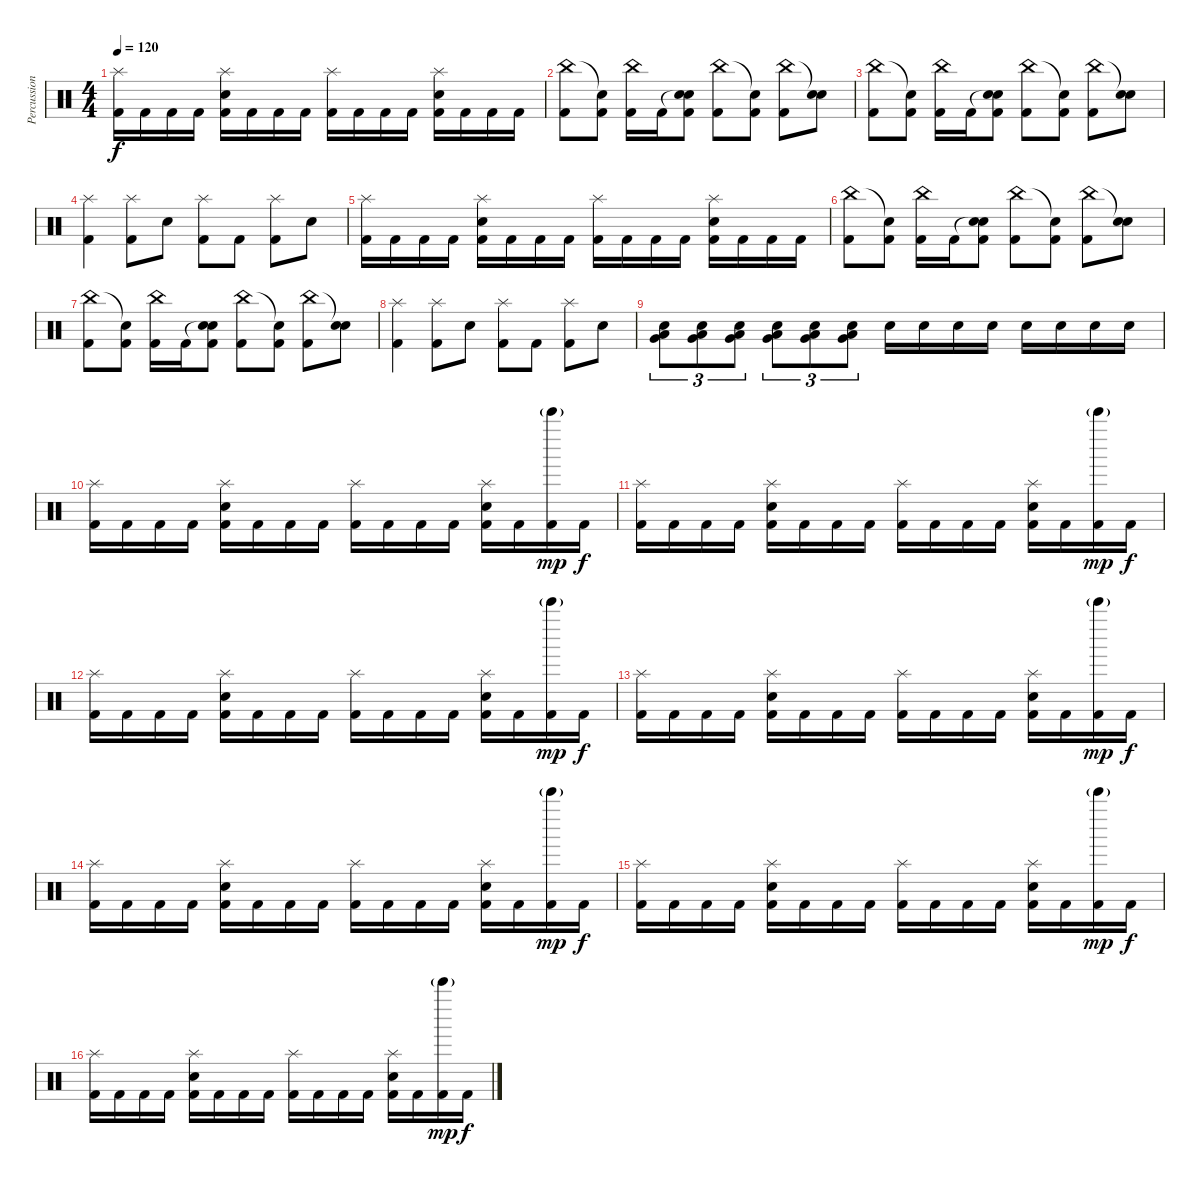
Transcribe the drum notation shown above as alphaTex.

\track ("Percussion" "Percussion") {instrument percussion}
\staff {score}
\articulation defaults
\ts (4 4)
\tempo 120
\clef neutral
\ks c
("Splash (hit)" "Kick (hit) 2").16{dy f} "Kick (hit) 2".16 "Kick (hit) 2".16 "Kick (hit) 2".16 ("Splash (hit)" "Electric Snare (hit)" "Kick (hit) 2").16 "Kick (hit) 2".16 "Kick (hit) 2".16 "Kick (hit) 2".16 ("Splash (hit)" "Kick (hit) 2").16 "Kick (hit) 2".16 "Kick (hit) 2".16 "Kick (hit) 2".16 ("Splash (hit)" "Snare (hit) 2" "Kick (hit) 2").16 "Kick (hit) 2".16 "Kick (hit) 2".16 "Kick (hit) 2".16 |
("China (hit)" "Kick (hit) 2").8 ("Snare (hit)"{t} "Kick (hit) 2").8 ("China (hit)" "Kick (hit) 2").16 "Kick (hit) 2".16 ("Snare (hit)"{t} "Electric Snare (hit)" "Kick (hit) 2").8 ("China (hit)" "Kick (hit) 2").8 ("Snare (hit)"{t} "Kick (hit) 2").8 ("China (hit)" "Kick (hit) 2").8 ("Snare (hit)"{t} "Electric Snare (hit)").8 |
("China (hit)" "Kick (hit) 2").8 ("Snare (hit)"{t} "Kick (hit) 2").8 ("China (hit)" "Kick (hit) 2").16 "Kick (hit) 2".16 ("Snare (hit)"{t} "Electric Snare (hit)" "Kick (hit) 2").8 ("China (hit)" "Kick (hit) 2").8 ("Snare (hit)"{t} "Kick (hit) 2").8 ("China (hit)" "Kick (hit) 2").8 ("Snare (hit)"{t} "Electric Snare (hit)").8 |
("Splash (hit)" "Kick (hit) 2").4 ("Splash (hit)" "Kick (hit) 2").8 "Electric Snare (hit)".8 ("Splash (hit)" "Kick (hit) 2").8 "Kick (hit) 2".8 ("Splash (hit)" "Kick (hit) 2").8 "Electric Snare (hit)".8 |
("Splash (hit)" "Kick (hit) 2").16 "Kick (hit) 2".16 "Kick (hit) 2".16 "Kick (hit) 2".16 ("Splash (hit)" "Electric Snare (hit)" "Kick (hit) 2").16 "Kick (hit) 2".16 "Kick (hit) 2".16 "Kick (hit) 2".16 ("Splash (hit)" "Kick (hit) 2").16 "Kick (hit) 2".16 "Kick (hit) 2".16 "Kick (hit) 2".16 ("Splash (hit)" "Snare (hit) 2" "Kick (hit) 2").16 "Kick (hit) 2".16 "Kick (hit) 2".16 "Kick (hit) 2".16 |
("China (hit)" "Kick (hit) 2").8 ("Snare (hit)"{t} "Kick (hit) 2").8 ("China (hit)" "Kick (hit) 2").16 "Kick (hit) 2".16 ("Snare (hit)"{t} "Electric Snare (hit)" "Kick (hit) 2").8 ("China (hit)" "Kick (hit) 2").8 ("Snare (hit)"{t} "Kick (hit) 2").8 ("China (hit)" "Kick (hit) 2").8 ("Snare (hit)"{t} "Electric Snare (hit)").8 |
("China (hit)" "Kick (hit) 2").8 ("Snare (hit)"{t} "Kick (hit) 2").8 ("China (hit)" "Kick (hit) 2").16 "Kick (hit) 2".16 ("Snare (hit)"{t} "Electric Snare (hit)" "Kick (hit) 2").8 ("China (hit)" "Kick (hit) 2").8 ("Snare (hit)"{t} "Kick (hit) 2").8 ("China (hit)" "Kick (hit) 2").8 ("Snare (hit)"{t} "Electric Snare (hit)").8 |
("Splash (hit)" "Kick (hit) 2").4 ("Splash (hit)" "Kick (hit) 2").8 "Electric Snare (hit)".8 ("Splash (hit)" "Kick (hit) 2").8 "Kick (hit) 2".8 ("Splash (hit)" "Kick (hit) 2").8 "Electric Snare (hit)".8 |
("Electric Snare (hit)" "Very Low Tom (hit)" "Low Floor Tom (hit)").8{tu (3 2) volume 5} ("Electric Snare (hit)" "Very Low Tom (hit)" "Low Floor Tom (hit)").8{tu (3 2) volume 16} ("Electric Snare (hit)" "Very Low Tom (hit)" "Low Floor Tom (hit)").8{tu (3 2)} ("Electric Snare (hit)" "Very Low Tom (hit)" "Low Floor Tom (hit)").8{tu (3 2)} ("Electric Snare (hit)" "Very Low Tom (hit)" "Low Floor Tom (hit)").8{tu (3 2)} ("Electric Snare (hit)" "Very Low Tom (hit)" "Low Floor Tom (hit)").8{tu (3 2)} "Electric Snare (hit)".16 "Electric Snare (hit)".16 "Electric Snare (hit)".16 "Electric Snare (hit)".16 "Electric Snare (hit)".16 "Electric Snare (hit)".16 "Electric Snare (hit)".16 "Electric Snare (hit)".16 |
("Splash (hit)" "Kick (hit) 2").16 "Kick (hit) 2".16 "Kick (hit) 2".16 "Kick (hit) 2".16 ("Splash (hit)" "Electric Snare (hit)" "Kick (hit) 2").16 "Kick (hit) 2".16 "Kick (hit) 2".16 "Kick (hit) 2".16 ("Splash (hit)" "Kick (hit) 2").16 "Kick (hit) 2".16 "Kick (hit) 2".16 "Kick (hit) 2".16 ("Splash (hit)" "Electric Snare (hit)" "Kick (hit) 2").16 "Kick (hit) 2".16 ("Bell Tree (hit)"{g} "Kick (hit) 2").16{dy mp} "Kick (hit) 2".16{dy f} |
("Splash (hit)" "Kick (hit) 2").16 "Kick (hit) 2".16 "Kick (hit) 2".16 "Kick (hit) 2".16 ("Splash (hit)" "Electric Snare (hit)" "Kick (hit) 2").16 "Kick (hit) 2".16 "Kick (hit) 2".16 "Kick (hit) 2".16 ("Splash (hit)" "Kick (hit) 2").16 "Kick (hit) 2".16 "Kick (hit) 2".16 "Kick (hit) 2".16 ("Splash (hit)" "Electric Snare (hit)" "Kick (hit) 2").16 "Kick (hit) 2".16 ("Bell Tree (hit)"{g} "Kick (hit) 2").16{dy mp} "Kick (hit) 2".16{dy f} |
("Splash (hit)" "Kick (hit) 2").16 "Kick (hit) 2".16 "Kick (hit) 2".16 "Kick (hit) 2".16 ("Splash (hit)" "Electric Snare (hit)" "Kick (hit) 2").16 "Kick (hit) 2".16 "Kick (hit) 2".16 "Kick (hit) 2".16 ("Splash (hit)" "Kick (hit) 2").16 "Kick (hit) 2".16 "Kick (hit) 2".16 "Kick (hit) 2".16 ("Splash (hit)" "Electric Snare (hit)" "Kick (hit) 2").16 "Kick (hit) 2".16 ("Bell Tree (hit)"{g} "Kick (hit) 2").16{dy mp} "Kick (hit) 2".16{dy f} |
("Splash (hit)" "Kick (hit) 2").16 "Kick (hit) 2".16 "Kick (hit) 2".16 "Kick (hit) 2".16 ("Splash (hit)" "Electric Snare (hit)" "Kick (hit) 2").16 "Kick (hit) 2".16 "Kick (hit) 2".16 "Kick (hit) 2".16 ("Splash (hit)" "Kick (hit) 2").16 "Kick (hit) 2".16 "Kick (hit) 2".16 "Kick (hit) 2".16 ("Splash (hit)" "Electric Snare (hit)" "Kick (hit) 2").16 "Kick (hit) 2".16 ("Bell Tree (hit)"{g} "Kick (hit) 2").16{dy mp} "Kick (hit) 2".16{dy f} |
("Splash (hit)" "Kick (hit) 2").16 "Kick (hit) 2".16 "Kick (hit) 2".16 "Kick (hit) 2".16 ("Splash (hit)" "Electric Snare (hit)" "Kick (hit) 2").16 "Kick (hit) 2".16 "Kick (hit) 2".16 "Kick (hit) 2".16 ("Splash (hit)" "Kick (hit) 2").16 "Kick (hit) 2".16 "Kick (hit) 2".16 "Kick (hit) 2".16 ("Splash (hit)" "Electric Snare (hit)" "Kick (hit) 2").16 "Kick (hit) 2".16 ("Bell Tree (hit)"{g} "Kick (hit) 2").16{dy mp} "Kick (hit) 2".16{dy f} |
("Splash (hit)" "Kick (hit) 2").16 "Kick (hit) 2".16 "Kick (hit) 2".16 "Kick (hit) 2".16 ("Splash (hit)" "Electric Snare (hit)" "Kick (hit) 2").16 "Kick (hit) 2".16 "Kick (hit) 2".16 "Kick (hit) 2".16 ("Splash (hit)" "Kick (hit) 2").16 "Kick (hit) 2".16 "Kick (hit) 2".16 "Kick (hit) 2".16 ("Splash (hit)" "Electric Snare (hit)" "Kick (hit) 2").16 "Kick (hit) 2".16 ("Bell Tree (hit)"{g} "Kick (hit) 2").16{dy mp} "Kick (hit) 2".16{dy f} |
("Splash (hit)" "Kick (hit) 2").16 "Kick (hit) 2".16 "Kick (hit) 2".16 "Kick (hit) 2".16 ("Splash (hit)" "Electric Snare (hit)" "Kick (hit) 2").16 "Kick (hit) 2".16 "Kick (hit) 2".16 "Kick (hit) 2".16 ("Splash (hit)" "Kick (hit) 2").16 "Kick (hit) 2".16 "Kick (hit) 2".16 "Kick (hit) 2".16 ("Splash (hit)" "Electric Snare (hit)" "Kick (hit) 2").16 "Kick (hit) 2".16 ("Bell Tree (hit)"{g} "Kick (hit) 2").16{dy mp} "Kick (hit) 2".16{dy f}
